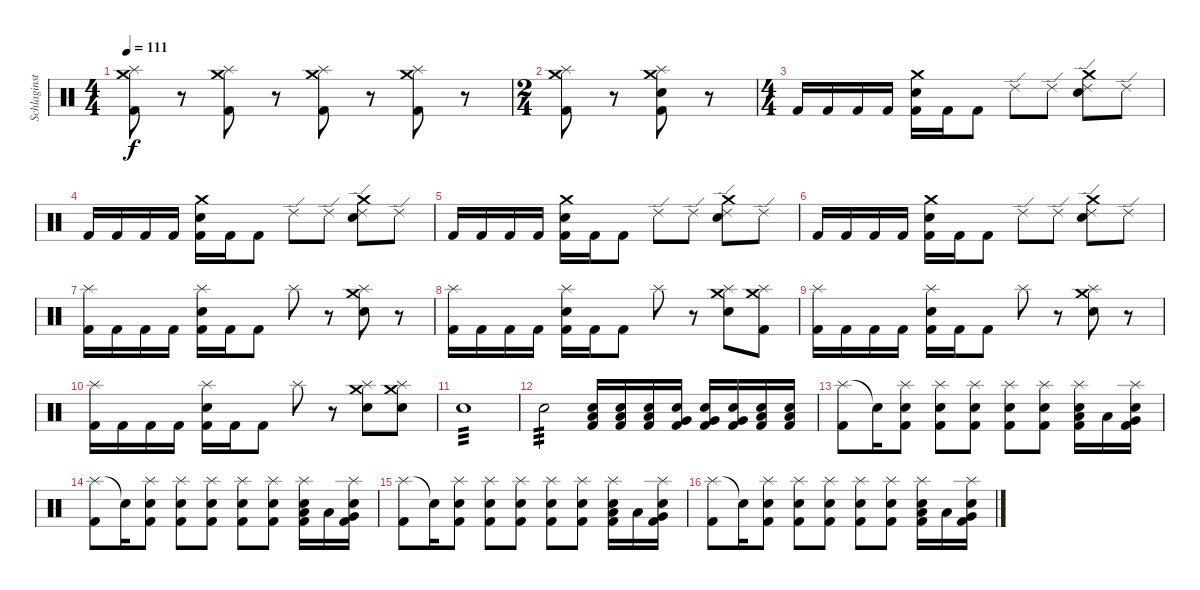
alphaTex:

\track ("Schlaginstrumente - Auswahl" "Schlaginst") {instrument percussion}
\staff {score}
\articulation defaults
\ts (4 4)
\tempo 111
\clef neutral
\ks c
("Crash medium (hit)" "Splash (hit)" "Kick (hit) 2").8{dy f} r.8 ("Crash medium (hit)" "Splash (hit)" "Kick (hit) 2").8 r.8 ("Crash medium (hit)" "Splash (hit)" "Kick (hit) 2").8 r.8 ("Crash medium (hit)" "Splash (hit)" "Kick (hit) 2").8 r.8 |
\ts (2 4)
("Kick (hit) 2" "Crash medium (hit)" "Splash (hit)").8 r.8 ("Kick (hit) 2" "Electric Snare (hit)" "Crash medium (hit)" "Splash (hit)").8 r.8 |
\ts (4 4)
"Kick (hit) 2".16 "Kick (hit) 2".16 "Kick (hit) 2".16 "Kick (hit) 2".16 ("Crash medium (hit)" "Electric Snare (hit)" "Kick (hit) 2").16 "Kick (hit) 2".16 "Kick (hit) 2".8 "Ride (edge) 2".8 "Ride (edge) 2".8 ("Crash medium (hit)" "Ride (edge) 2" "Electric Snare (hit)").8 "Ride (edge) 2".8 |
"Kick (hit) 2".16 "Kick (hit) 2".16 "Kick (hit) 2".16 "Kick (hit) 2".16 ("Crash medium (hit)" "Electric Snare (hit)" "Kick (hit) 2").16 "Kick (hit) 2".16 "Kick (hit) 2".8 "Ride (edge) 2".8 "Ride (edge) 2".8 ("Crash medium (hit)" "Ride (edge) 2" "Electric Snare (hit)").8 "Ride (edge) 2".8 |
"Kick (hit) 2".16 "Kick (hit) 2".16 "Kick (hit) 2".16 "Kick (hit) 2".16 ("Crash medium (hit)" "Electric Snare (hit)" "Kick (hit) 2").16 "Kick (hit) 2".16 "Kick (hit) 2".8 "Ride (edge) 2".8 "Ride (edge) 2".8 ("Crash medium (hit)" "Ride (edge) 2" "Electric Snare (hit)").8 "Ride (edge) 2".8 |
"Kick (hit) 2".16 "Kick (hit) 2".16 "Kick (hit) 2".16 "Kick (hit) 2".16 ("Crash medium (hit)" "Electric Snare (hit)" "Kick (hit) 2").16 "Kick (hit) 2".16 "Kick (hit) 2".8 "Ride (edge) 2".8 "Ride (edge) 2".8 ("Crash medium (hit)" "Ride (edge) 2" "Electric Snare (hit)").8 "Ride (edge) 2".8 |
("Splash (hit)" "Kick (hit) 2").16 "Kick (hit) 2".16 "Kick (hit) 2".16 "Kick (hit) 2".16 ("Splash (hit)" "Electric Snare (hit)" "Kick (hit) 2").16 "Kick (hit) 2".16 "Kick (hit) 2".8 "Splash (hit)".8 r.8 ("Crash medium (hit)" "Splash (hit)" "Electric Snare (hit)").8 r.8 |
("Splash (hit)" "Kick (hit) 2").16 "Kick (hit) 2".16 "Kick (hit) 2".16 "Kick (hit) 2".16 ("Splash (hit)" "Electric Snare (hit)" "Kick (hit) 2").16 "Kick (hit) 2".16 "Kick (hit) 2".8 "Splash (hit)".8 r.8 ("Crash medium (hit)" "Splash (hit)" "Electric Snare (hit)").8 ("Splash (hit)" "Crash medium (hit)" "Kick (hit) 2").8 |
("Splash (hit)" "Kick (hit) 2").16 "Kick (hit) 2".16 "Kick (hit) 2".16 "Kick (hit) 2".16 ("Splash (hit)" "Electric Snare (hit)" "Kick (hit) 2").16 "Kick (hit) 2".16 "Kick (hit) 2".8 "Splash (hit)".8 r.8 ("Crash medium (hit)" "Splash (hit)" "Electric Snare (hit)").8 r.8 |
("Splash (hit)" "Kick (hit) 2").16 "Kick (hit) 2".16 "Kick (hit) 2".16 "Kick (hit) 2".16 ("Splash (hit)" "Electric Snare (hit)" "Kick (hit) 2").16 "Kick (hit) 2".16 "Kick (hit) 2".8 "Splash (hit)".8 r.8 ("Crash medium (hit)" "Splash (hit)" "Electric Snare (hit)").8 ("Splash (hit)" "Crash medium (hit)" "Snare (hit)").8 |
"Electric Snare (hit)".1{tp 3} |
"Electric Snare (hit)".2{tp 3} ("Low Floor Tom (hit)" "Electric Snare (hit)" "Kick (hit) 2").16 ("Low Floor Tom (hit)" "Electric Snare (hit)" "Kick (hit) 2").16 ("Low Floor Tom (hit)" "Electric Snare (hit)" "Kick (hit) 2").16 ("Very Low Tom (hit)" "Electric Snare (hit)" "Kick (hit) 2").16 ("Very Low Tom (hit)" "Electric Snare (hit)" "Kick (hit) 2").16 ("Very Low Tom (hit)" "Electric Snare (hit)" "Kick (hit) 2").16 ("Low Tom (hit)" "Electric Snare (hit)" "Kick (hit) 2").16 ("Low Tom (hit)" "Electric Snare (hit)" "Kick (hit) 2").16 |
("Splash (hit)" "Kick (hit) 2").8 "Snare (hit)"{t}.16 ("Kick (hit) 2" "Splash (hit)" "Electric Snare (hit)").8 ("Kick (hit) 2" "Splash (hit)" "Electric Snare (hit)").8 ("Kick (hit) 2" "Splash (hit)" "Electric Snare (hit)").8 ("Kick (hit) 2" "Splash (hit)" "Electric Snare (hit)").8 ("Kick (hit) 2" "Splash (hit)" "Electric Snare (hit)").8 ("Low Floor Tom (hit)" "Kick (hit) 2" "Splash (hit)" "Electric Snare (hit)").16 "Low Floor Tom (hit)".16 ("Very Low Tom (hit)" "Kick (hit) 2" "Splash (hit)" "Electric Snare (hit)").16 |
("Splash (hit)" "Kick (hit) 2").8 "Snare (hit)"{t}.16 ("Kick (hit) 2" "Splash (hit)" "Electric Snare (hit)").8 ("Kick (hit) 2" "Splash (hit)" "Electric Snare (hit)").8 ("Kick (hit) 2" "Splash (hit)" "Electric Snare (hit)").8 ("Kick (hit) 2" "Splash (hit)" "Electric Snare (hit)").8 ("Kick (hit) 2" "Splash (hit)" "Electric Snare (hit)").8 ("Low Floor Tom (hit)" "Kick (hit) 2" "Splash (hit)" "Electric Snare (hit)").16 "Low Floor Tom (hit)".16 ("Very Low Tom (hit)" "Kick (hit) 2" "Splash (hit)" "Electric Snare (hit)").16 |
("Splash (hit)" "Kick (hit) 2").8 "Snare (hit)"{t}.16 ("Kick (hit) 2" "Splash (hit)" "Electric Snare (hit)").8 ("Kick (hit) 2" "Splash (hit)" "Electric Snare (hit)").8 ("Kick (hit) 2" "Splash (hit)" "Electric Snare (hit)").8 ("Kick (hit) 2" "Splash (hit)" "Electric Snare (hit)").8 ("Kick (hit) 2" "Splash (hit)" "Electric Snare (hit)").8 ("Low Floor Tom (hit)" "Kick (hit) 2" "Splash (hit)" "Electric Snare (hit)").16 "Low Floor Tom (hit)".16 ("Very Low Tom (hit)" "Kick (hit) 2" "Splash (hit)" "Electric Snare (hit)").16 |
("Splash (hit)" "Kick (hit) 2").8 "Snare (hit)"{t}.16 ("Kick (hit) 2" "Splash (hit)" "Electric Snare (hit)").8 ("Kick (hit) 2" "Splash (hit)" "Electric Snare (hit)").8 ("Kick (hit) 2" "Splash (hit)" "Electric Snare (hit)").8 ("Kick (hit) 2" "Splash (hit)" "Electric Snare (hit)").8 ("Kick (hit) 2" "Splash (hit)" "Electric Snare (hit)").8 ("Low Floor Tom (hit)" "Kick (hit) 2" "Splash (hit)" "Electric Snare (hit)").16 "Low Floor Tom (hit)".16 ("Very Low Tom (hit)" "Kick (hit) 2" "Splash (hit)" "Electric Snare (hit)").16
